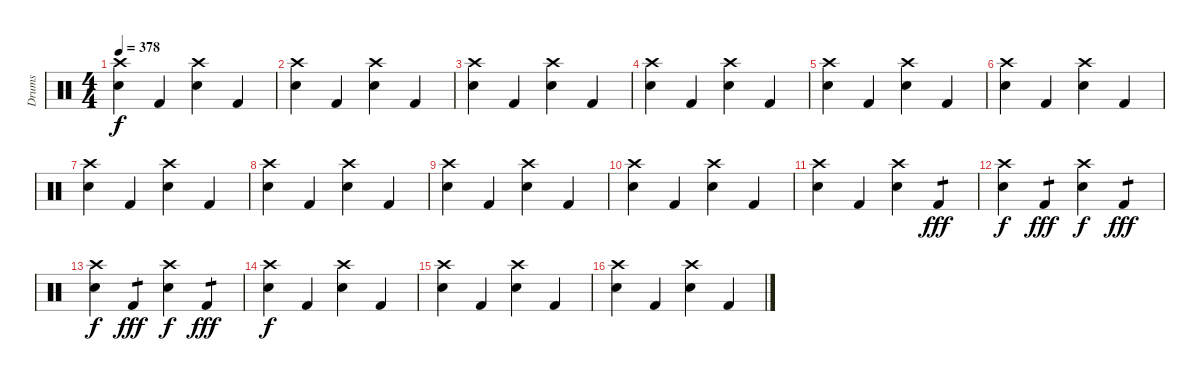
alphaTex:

\track ("Drums" "Drums") {instrument percussion}
\staff {score}
\articulation defaults
\ts (4 4)
\tempo 378
\clef neutral
\ks c
("Crash high (hit)" "Electric Snare (hit)").4{dy f} "Kick (hit) 2".4 ("Crash high (hit)" "Electric Snare (hit)").4 "Kick (hit) 2".4 |
("Crash high (hit)" "Electric Snare (hit)").4 "Kick (hit) 2".4 ("Crash high (hit)" "Electric Snare (hit)").4 "Kick (hit) 2".4 |
("Crash high (hit)" "Electric Snare (hit)").4 "Kick (hit) 2".4 ("Crash high (hit)" "Electric Snare (hit)").4 "Kick (hit) 2".4 |
("Crash high (hit)" "Electric Snare (hit)").4 "Kick (hit) 2".4 ("Crash high (hit)" "Electric Snare (hit)").4 "Kick (hit) 2".4 |
("Crash high (hit)" "Electric Snare (hit)").4 "Kick (hit) 2".4 ("Crash high (hit)" "Electric Snare (hit)").4 "Kick (hit) 2".4 |
("Crash high (hit)" "Electric Snare (hit)").4 "Kick (hit) 2".4 ("Crash high (hit)" "Electric Snare (hit)").4 "Kick (hit) 2".4 |
("Crash high (hit)" "Electric Snare (hit)").4 "Kick (hit) 2".4 ("Crash high (hit)" "Electric Snare (hit)").4 "Kick (hit) 2".4 |
("Crash high (hit)" "Electric Snare (hit)").4 "Kick (hit) 2".4 ("Crash high (hit)" "Electric Snare (hit)").4 "Kick (hit) 2".4 |
("Crash high (hit)" "Electric Snare (hit)").4 "Kick (hit) 2".4 ("Crash high (hit)" "Electric Snare (hit)").4 "Kick (hit) 2".4 |
("Crash high (hit)" "Electric Snare (hit)").4 "Kick (hit) 2".4 ("Crash high (hit)" "Electric Snare (hit)").4 "Kick (hit) 2".4 |
("Crash high (hit)" "Electric Snare (hit)").4 "Kick (hit) 2".4 ("Crash high (hit)" "Electric Snare (hit)").4 "Kick (hit) 2".4{tp 1 dy fff} |
("Crash high (hit)" "Electric Snare (hit)").4{dy f} "Kick (hit) 2".4{tp 1 dy fff} ("Crash high (hit)" "Electric Snare (hit)").4{dy f} "Kick (hit) 2".4{tp 1 dy fff} |
("Crash high (hit)" "Electric Snare (hit)").4{dy f} "Kick (hit) 2".4{tp 1 dy fff} ("Crash high (hit)" "Electric Snare (hit)").4{dy f} "Kick (hit) 2".4{tp 1 dy fff} |
("Crash high (hit)" "Electric Snare (hit)").4{dy f} "Kick (hit) 2".4 ("Crash high (hit)" "Electric Snare (hit)").4 "Kick (hit) 2".4 |
("Crash high (hit)" "Electric Snare (hit)").4 "Kick (hit) 2".4 ("Crash high (hit)" "Electric Snare (hit)").4 "Kick (hit) 2".4 |
("Crash high (hit)" "Electric Snare (hit)").4 "Kick (hit) 2".4 ("Crash high (hit)" "Electric Snare (hit)").4 "Kick (hit) 2".4
